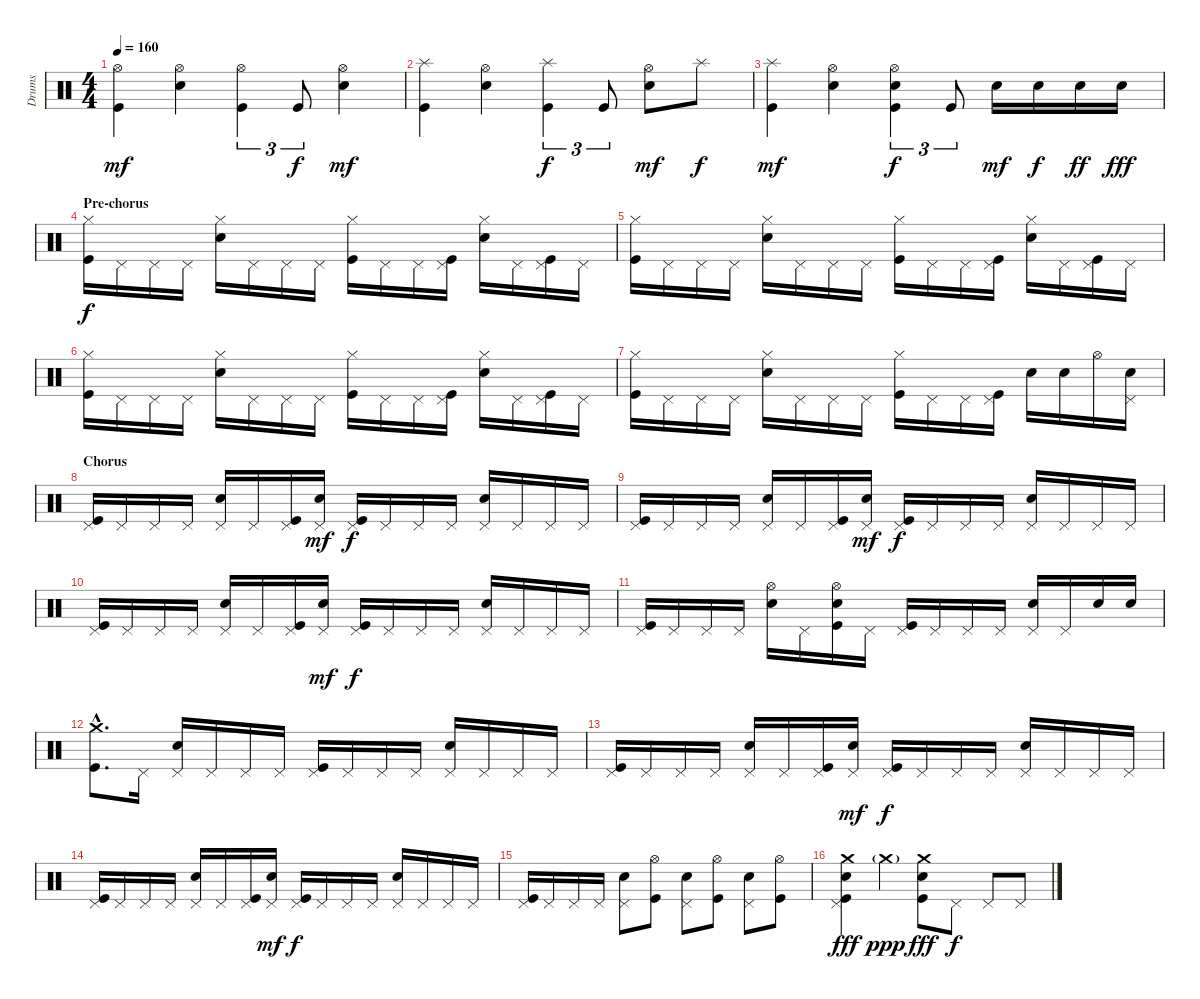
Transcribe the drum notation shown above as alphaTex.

\track ("Drums" "Drums") {instrument percussion}
\staff {score}
\articulation defaults
\ts (4 4)
\tempo 160
\clef neutral
\ks c
("Hi-Hat (open)" "Kick (hit)").4{dy mf} ("Hi-Hat (open)" "Electric Snare (hit)").4 ("Hi-Hat (open)" "Kick (hit)").4{tu (3 2)} "Kick (hit)".8{tu (3 2) dy f} ("Hi-Hat (open)" "Electric Snare (hit)").4{dy mf} |
("Splash (hit)" "Kick (hit)").4 ("Hi-Hat (open)" "Electric Snare (hit)").4 ("Splash (hit)" "Kick (hit)").4{tu (3 2) dy f} "Kick (hit)".8{tu (3 2)} ("Hi-Hat (open)" "Electric Snare (hit)").8{dy mf} "Splash (hit)".8{dy f} |
("Splash (hit)" "Kick (hit)").4{dy mf} ("Hi-Hat (open)" "Electric Snare (hit)").4 ("Hi-Hat (open)" "Electric Snare (hit)" "Kick (hit)").4{tu (3 2) dy f} "Kick (hit)".8{tu (3 2)} "Electric Snare (hit)".16{dy mf} "Electric Snare (hit)".16{dy f} "Electric Snare (hit)".16{dy ff} "Electric Snare (hit)".16{dy fff} |
\section ("" "Pre-chorus")
("Hi-Hat (closed)" "Kick (hit)").16{dy f} "Pedal Hi-Hat (hit)".16 "Pedal Hi-Hat (hit)".16 "Pedal Hi-Hat (hit)".16 ("Hi-Hat (closed)" "Electric Snare (hit)").16 "Pedal Hi-Hat (hit)".16 "Pedal Hi-Hat (hit)".16 "Pedal Hi-Hat (hit)".16 ("Hi-Hat (closed)" "Kick (hit)").16 "Pedal Hi-Hat (hit)".16 "Pedal Hi-Hat (hit)".16 ("Pedal Hi-Hat (hit)" "Kick (hit)").16 ("Hi-Hat (closed)" "Electric Snare (hit)").16 "Pedal Hi-Hat (hit)".16 ("Pedal Hi-Hat (hit)" "Kick (hit)").16 "Pedal Hi-Hat (hit)".16 |
("Hi-Hat (closed)" "Kick (hit)").16 "Pedal Hi-Hat (hit)".16 "Pedal Hi-Hat (hit)".16 "Pedal Hi-Hat (hit)".16 ("Hi-Hat (closed)" "Electric Snare (hit)").16 "Pedal Hi-Hat (hit)".16 "Pedal Hi-Hat (hit)".16 "Pedal Hi-Hat (hit)".16 ("Hi-Hat (closed)" "Kick (hit)").16 "Pedal Hi-Hat (hit)".16 "Pedal Hi-Hat (hit)".16 ("Pedal Hi-Hat (hit)" "Kick (hit)").16 ("Hi-Hat (closed)" "Electric Snare (hit)").16 "Pedal Hi-Hat (hit)".16 ("Pedal Hi-Hat (hit)" "Kick (hit)").16 "Pedal Hi-Hat (hit)".16 |
("Hi-Hat (closed)" "Kick (hit)").16 "Pedal Hi-Hat (hit)".16 "Pedal Hi-Hat (hit)".16 "Pedal Hi-Hat (hit)".16 ("Hi-Hat (closed)" "Electric Snare (hit)").16 "Pedal Hi-Hat (hit)".16 "Pedal Hi-Hat (hit)".16 "Pedal Hi-Hat (hit)".16 ("Hi-Hat (closed)" "Kick (hit)").16 "Pedal Hi-Hat (hit)".16 "Pedal Hi-Hat (hit)".16 ("Pedal Hi-Hat (hit)" "Kick (hit)").16 ("Hi-Hat (closed)" "Electric Snare (hit)").16 "Pedal Hi-Hat (hit)".16 ("Pedal Hi-Hat (hit)" "Kick (hit)").16 "Pedal Hi-Hat (hit)".16 |
("Hi-Hat (closed)" "Kick (hit)").16 "Pedal Hi-Hat (hit)".16 "Pedal Hi-Hat (hit)".16 "Pedal Hi-Hat (hit)".16 ("Hi-Hat (closed)" "Electric Snare (hit)").16 "Pedal Hi-Hat (hit)".16 "Pedal Hi-Hat (hit)".16 "Pedal Hi-Hat (hit)".16 ("Hi-Hat (closed)" "Kick (hit)").16 "Pedal Hi-Hat (hit)".16 "Pedal Hi-Hat (hit)".16 ("Pedal Hi-Hat (hit)" "Kick (hit)").16 "Electric Snare (hit)".16 "Electric Snare (hit)".16 "Hi-Hat (open)".16 ("Pedal Hi-Hat (hit)" "Electric Snare (hit)").16 |
\section ("" "Chorus")
("Pedal Hi-Hat (hit)" "Kick (hit)").16 "Pedal Hi-Hat (hit)".16 "Pedal Hi-Hat (hit)".16 "Pedal Hi-Hat (hit)".16 ("Pedal Hi-Hat (hit)" "Electric Snare (hit)").16 "Pedal Hi-Hat (hit)".16 ("Pedal Hi-Hat (hit)" "Kick (hit)").16 ("Pedal Hi-Hat (hit)" "Electric Snare (hit)").16{dy mf} ("Pedal Hi-Hat (hit)" "Kick (hit)").16{dy f} "Pedal Hi-Hat (hit)".16 "Pedal Hi-Hat (hit)".16 "Pedal Hi-Hat (hit)".16 ("Pedal Hi-Hat (hit)" "Electric Snare (hit)").16 "Pedal Hi-Hat (hit)".16 "Pedal Hi-Hat (hit)".16 "Pedal Hi-Hat (hit)".16 |
("Pedal Hi-Hat (hit)" "Kick (hit)").16 "Pedal Hi-Hat (hit)".16 "Pedal Hi-Hat (hit)".16 "Pedal Hi-Hat (hit)".16 ("Pedal Hi-Hat (hit)" "Electric Snare (hit)").16 "Pedal Hi-Hat (hit)".16 ("Pedal Hi-Hat (hit)" "Kick (hit)").16 ("Pedal Hi-Hat (hit)" "Electric Snare (hit)").16{dy mf} ("Pedal Hi-Hat (hit)" "Kick (hit)").16{dy f} "Pedal Hi-Hat (hit)".16 "Pedal Hi-Hat (hit)".16 "Pedal Hi-Hat (hit)".16 ("Pedal Hi-Hat (hit)" "Electric Snare (hit)").16 "Pedal Hi-Hat (hit)".16 "Pedal Hi-Hat (hit)".16 "Pedal Hi-Hat (hit)".16 |
("Pedal Hi-Hat (hit)" "Kick (hit)").16 "Pedal Hi-Hat (hit)".16 "Pedal Hi-Hat (hit)".16 "Pedal Hi-Hat (hit)".16 ("Pedal Hi-Hat (hit)" "Electric Snare (hit)").16 "Pedal Hi-Hat (hit)".16 ("Pedal Hi-Hat (hit)" "Kick (hit)").16 ("Pedal Hi-Hat (hit)" "Electric Snare (hit)").16{dy mf} ("Pedal Hi-Hat (hit)" "Kick (hit)").16{dy f} "Pedal Hi-Hat (hit)".16 "Pedal Hi-Hat (hit)".16 "Pedal Hi-Hat (hit)".16 ("Pedal Hi-Hat (hit)" "Electric Snare (hit)").16 "Pedal Hi-Hat (hit)".16 "Pedal Hi-Hat (hit)".16 "Pedal Hi-Hat (hit)".16 |
("Pedal Hi-Hat (hit)" "Kick (hit)").16 "Pedal Hi-Hat (hit)".16 "Pedal Hi-Hat (hit)".16 "Pedal Hi-Hat (hit)".16 ("Hi-Hat (open)" "Electric Snare (hit)").16 "Pedal Hi-Hat (hit)".16 ("Hi-Hat (open)" "Electric Snare (hit)" "Kick (hit)").16 "Pedal Hi-Hat (hit)".16 ("Pedal Hi-Hat (hit)" "Kick (hit)").16 "Pedal Hi-Hat (hit)".16 "Pedal Hi-Hat (hit)".16 "Pedal Hi-Hat (hit)".16 ("Pedal Hi-Hat (hit)" "Electric Snare (hit)").16 "Pedal Hi-Hat (hit)".16 "Electric Snare (hit)".16 "Electric Snare (hit)".16 |
("Crash medium (hit)"{hac} "Kick (hit)"{hac}).8{d} "Pedal Hi-Hat (hit)".16 ("Pedal Hi-Hat (hit)" "Electric Snare (hit)").16 "Pedal Hi-Hat (hit)".16 "Pedal Hi-Hat (hit)".16 "Pedal Hi-Hat (hit)".16 ("Pedal Hi-Hat (hit)" "Kick (hit)").16 "Pedal Hi-Hat (hit)".16 "Pedal Hi-Hat (hit)".16 "Pedal Hi-Hat (hit)".16 ("Pedal Hi-Hat (hit)" "Electric Snare (hit)").16 "Pedal Hi-Hat (hit)".16 "Pedal Hi-Hat (hit)".16 "Pedal Hi-Hat (hit)".16 |
("Pedal Hi-Hat (hit)" "Kick (hit)").16 "Pedal Hi-Hat (hit)".16 "Pedal Hi-Hat (hit)".16 "Pedal Hi-Hat (hit)".16 ("Pedal Hi-Hat (hit)" "Electric Snare (hit)").16 "Pedal Hi-Hat (hit)".16 ("Pedal Hi-Hat (hit)" "Kick (hit)").16 ("Pedal Hi-Hat (hit)" "Electric Snare (hit)").16{dy mf} ("Pedal Hi-Hat (hit)" "Kick (hit)").16{dy f} "Pedal Hi-Hat (hit)".16 "Pedal Hi-Hat (hit)".16 "Pedal Hi-Hat (hit)".16 ("Pedal Hi-Hat (hit)" "Electric Snare (hit)").16 "Pedal Hi-Hat (hit)".16 "Pedal Hi-Hat (hit)".16 "Pedal Hi-Hat (hit)".16 |
("Pedal Hi-Hat (hit)" "Kick (hit)").16 "Pedal Hi-Hat (hit)".16 "Pedal Hi-Hat (hit)".16 "Pedal Hi-Hat (hit)".16 ("Pedal Hi-Hat (hit)" "Electric Snare (hit)").16 "Pedal Hi-Hat (hit)".16 ("Pedal Hi-Hat (hit)" "Kick (hit)").16 ("Pedal Hi-Hat (hit)" "Electric Snare (hit)").16{dy mf} ("Pedal Hi-Hat (hit)" "Kick (hit)").16{dy f} "Pedal Hi-Hat (hit)".16 "Pedal Hi-Hat (hit)".16 "Pedal Hi-Hat (hit)".16 ("Pedal Hi-Hat (hit)" "Electric Snare (hit)").16 "Pedal Hi-Hat (hit)".16 "Pedal Hi-Hat (hit)".16 "Pedal Hi-Hat (hit)".16 |
("Pedal Hi-Hat (hit)" "Kick (hit)").16 "Pedal Hi-Hat (hit)".16 "Pedal Hi-Hat (hit)".16 "Pedal Hi-Hat (hit)".16 ("Pedal Hi-Hat (hit)" "Electric Snare (hit)").8 ("Hi-Hat (open)" "Kick (hit)").8 ("Pedal Hi-Hat (hit)" "Electric Snare (hit)").8 ("Hi-Hat (open)" "Kick (hit)").8 ("Pedal Hi-Hat (hit)" "Electric Snare (hit)").8 ("Hi-Hat (open)" "Kick (hit)").8 |
("Crash medium (hit)" "Pedal Hi-Hat (hit)" "Electric Snare (hit)" "Kick (hit)").4{dy fff} "Crash medium (hit)"{g}.4{dy ppp} ("Crash medium (hit)" "Electric Snare (hit)" "Kick (hit)").8{dy fff} "Pedal Hi-Hat (hit)".8{dy f} "Pedal Hi-Hat (hit)".8 "Pedal Hi-Hat (hit)".8
